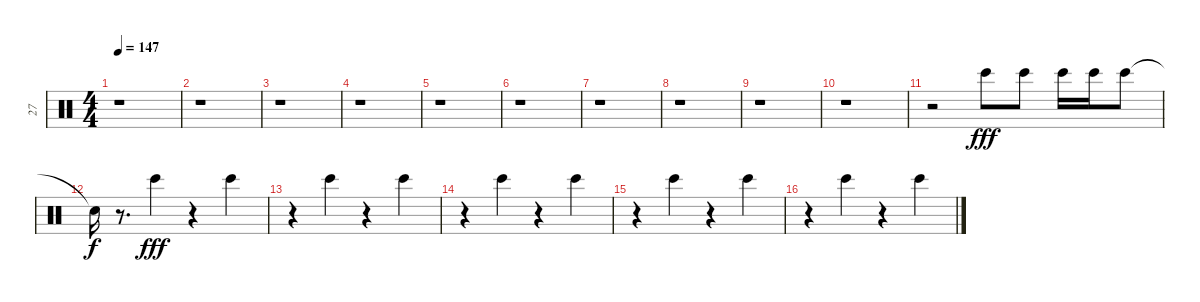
\track ("27" "27") {instrument percussion}
\staff {score}
\articulation defaults
\ts (4 4)
\tempo 147
\clef neutral
\ks c
r.1{dy fff} |
r.1 |
r.1 |
r.1 |
r.1 |
r.1 |
r.1 |
r.1 |
r.1 |
r.1 |
r.2 "Bongo High (hit)".8 "Bongo High (hit)".8 "Bongo High (hit)".16 "Bongo High (hit)".16 "Bongo High (hit)".8 |
"Snare (hit)"{t}.16{dy f} r.8{d} "Bongo High (hit)".4{dy fff} r.4 "Bongo High (hit)".4 |
r.4 "Bongo High (hit)".4 r.4 "Bongo High (hit)".4 |
r.4 "Bongo High (hit)".4 r.4 "Bongo High (hit)".4 |
r.4 "Bongo High (hit)".4 r.4 "Bongo High (hit)".4 |
r.4 "Bongo High (hit)".4 r.4 "Bongo High (hit)".4
